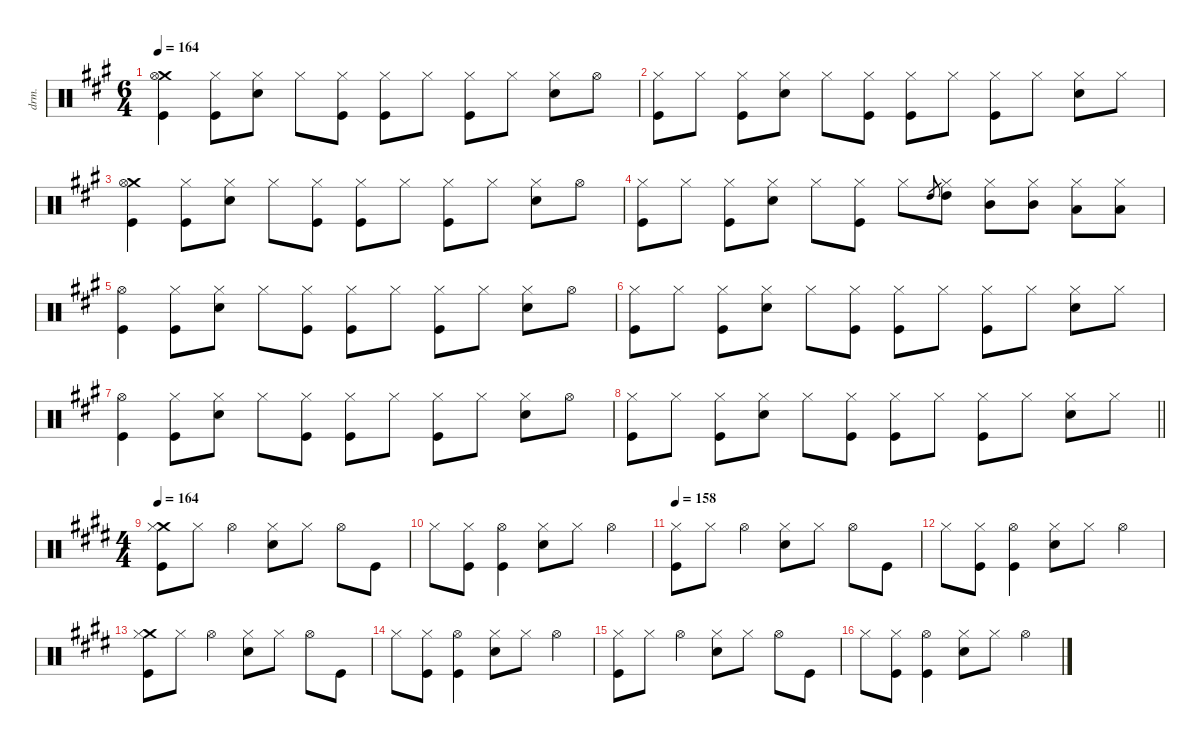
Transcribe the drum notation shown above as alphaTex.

\defaultSystemsLayout 4
\hideDynamics
\bracketExtendMode groupsimilarinstruments
\otherSystemsTrackNameOrientation horizontal
\track ("Drums" "drm.") {defaultSystemsLayout 4 instrument percussion}
\staff {score}
\articulation defaults
\ts (6 4)
\tempo 164
\clef neutral
\ks f#minor
("Crash medium (hit)"{acc forcenatural} "Hi-Hat (open)"{acc forcenatural} "Kick (hit)"{acc forcenatural}).4{dy f beam Down} ("Hi-Hat (closed)"{acc forcenatural} "Kick (hit)"{acc forcenatural}).8{beam Down} ("Hi-Hat (closed)"{acc forcenatural} "Snare (hit) 2"{acc forcenatural}).8{beam Down} "Hi-Hat (closed)"{acc forcenatural}.8{beam Down} ("Hi-Hat (closed)"{acc forcenatural} "Kick (hit)"{acc forcenatural}).8{beam Down} ("Hi-Hat (closed)"{acc forcenatural} "Kick (hit)"{acc forcenatural}).8{beam Down} "Hi-Hat (closed)"{acc forcenatural}.8{beam Down} ("Hi-Hat (closed)"{acc forcenatural} "Kick (hit)"{acc forcenatural}).8{beam Down} "Hi-Hat (closed)"{acc forcenatural}.8{beam Down} ("Hi-Hat (closed)"{acc forcenatural} "Snare (hit) 2"{acc forcenatural}).8{beam Down} "Hi-Hat (open)"{acc forcenatural}.8{beam Down} |
("Hi-Hat (closed)"{acc forcenatural} "Kick (hit)"{acc forcenatural}).8{beam Down} "Hi-Hat (closed)"{acc forcenatural}.8{beam Down} ("Hi-Hat (closed)"{acc forcenatural} "Kick (hit)"{acc forcenatural}).8{beam Down} ("Hi-Hat (closed)"{acc forcenatural} "Snare (hit) 2"{acc forcenatural}).8{beam Down} "Hi-Hat (closed)"{acc forcenatural}.8{beam Down} ("Hi-Hat (closed)"{acc forcenatural} "Kick (hit)"{acc forcenatural}).8{beam Down} ("Hi-Hat (closed)"{acc forcenatural} "Kick (hit)"{acc forcenatural}).8{beam Down} "Hi-Hat (closed)"{acc forcenatural}.8{beam Down} ("Hi-Hat (closed)"{acc forcenatural} "Kick (hit)"{acc forcenatural}).8{beam Down} "Hi-Hat (closed)"{acc forcenatural}.8{beam Down} ("Hi-Hat (closed)"{acc forcenatural} "Snare (hit) 2"{acc forcenatural}).8{beam Down} "Hi-Hat (closed)"{acc forcenatural}.8{beam Down} |
("Crash medium (hit)"{acc forcenatural} "Hi-Hat (open)"{acc forcenatural} "Kick (hit)"{acc forcenatural}).4{beam Down} ("Hi-Hat (closed)"{acc forcenatural} "Kick (hit)"{acc forcenatural}).8{beam Down} ("Hi-Hat (closed)"{acc forcenatural} "Snare (hit) 2"{acc forcenatural}).8{beam Down} "Hi-Hat (closed)"{acc forcenatural}.8{beam Down} ("Hi-Hat (closed)"{acc forcenatural} "Kick (hit)"{acc forcenatural}).8{beam Down} ("Hi-Hat (closed)"{acc forcenatural} "Kick (hit)"{acc forcenatural}).8{beam Down} "Hi-Hat (closed)"{acc forcenatural}.8{beam Down} ("Hi-Hat (closed)"{acc forcenatural} "Kick (hit)"{acc forcenatural}).8{beam Down} "Hi-Hat (closed)"{acc forcenatural}.8{beam Down} ("Hi-Hat (closed)"{acc forcenatural} "Snare (hit) 2"{acc forcenatural}).8{beam Down} "Hi-Hat (open)"{acc forcenatural}.8{beam Down} |
("Hi-Hat (closed)"{acc forcenatural} "Kick (hit)"{acc forcenatural}).8{beam Down} "Hi-Hat (closed)"{acc forcenatural}.8{beam Down} ("Hi-Hat (closed)"{acc forcenatural} "Kick (hit)"{acc forcenatural}).8{beam Down} ("Hi-Hat (closed)"{acc forcenatural} "Snare (hit) 2"{acc forcenatural}).8{beam Down} "Hi-Hat (closed)"{acc forcenatural}.8{beam Down} ("Hi-Hat (closed)"{acc forcenatural} "Kick (hit)"{acc forcenatural}).8{beam Down} "Hi-Hat (closed)"{acc forcenatural}.8{beam Down} "High Tom (hit)"{acc forcenatural}.8{gr dy mf beam Up} ("Hi-Hat (closed)"{acc forcenatural} "High Tom (hit)"{acc forcenatural}).8{dy f beam Down} ("Hi-Hat (closed)"{acc forcenatural} "Mid Tom (hit)"{acc forcenatural}).8{beam Down} ("Hi-Hat (closed)"{acc forcenatural} "Mid Tom (hit)"{acc forcenatural}).8{beam Down} ("Hi-Hat (closed)"{acc forcenatural} "Low Tom (hit)"{acc forcenatural}).8{beam Down} ("Hi-Hat (closed)"{acc forcenatural} "Low Tom (hit)"{acc forcenatural}).8{beam Down} |
("Hi-Hat (open)"{acc forcenatural} "Kick (hit)"{acc forcenatural}).4{beam Down} ("Hi-Hat (closed)"{acc forcenatural} "Kick (hit)"{acc forcenatural}).8{beam Down} ("Hi-Hat (closed)"{acc forcenatural} "Snare (hit) 2"{acc forcenatural}).8{beam Down} "Hi-Hat (closed)"{acc forcenatural}.8{beam Down} ("Hi-Hat (closed)"{acc forcenatural} "Kick (hit)"{acc forcenatural}).8{beam Down} ("Hi-Hat (closed)"{acc forcenatural} "Kick (hit)"{acc forcenatural}).8{beam Down} "Hi-Hat (closed)"{acc forcenatural}.8{beam Down} ("Hi-Hat (closed)"{acc forcenatural} "Kick (hit)"{acc forcenatural}).8{beam Down} "Hi-Hat (closed)"{acc forcenatural}.8{beam Down} ("Hi-Hat (closed)"{acc forcenatural} "Snare (hit) 2"{acc forcenatural}).8{beam Down} "Hi-Hat (open)"{acc forcenatural}.8{beam Down} |
("Hi-Hat (closed)"{acc forcenatural} "Kick (hit)"{acc forcenatural}).8{beam Down} "Hi-Hat (closed)"{acc forcenatural}.8{beam Down} ("Hi-Hat (closed)"{acc forcenatural} "Kick (hit)"{acc forcenatural}).8{beam Down} ("Hi-Hat (closed)"{acc forcenatural} "Snare (hit) 2"{acc forcenatural}).8{beam Down} "Hi-Hat (closed)"{acc forcenatural}.8{beam Down} ("Hi-Hat (closed)"{acc forcenatural} "Kick (hit)"{acc forcenatural}).8{beam Down} ("Hi-Hat (closed)"{acc forcenatural} "Kick (hit)"{acc forcenatural}).8{beam Down} "Hi-Hat (closed)"{acc forcenatural}.8{beam Down} ("Hi-Hat (closed)"{acc forcenatural} "Kick (hit)"{acc forcenatural}).8{beam Down} "Hi-Hat (closed)"{acc forcenatural}.8{beam Down} ("Hi-Hat (closed)"{acc forcenatural} "Snare (hit) 2"{acc forcenatural}).8{beam Down} "Hi-Hat (closed)"{acc forcenatural}.8{beam Down} |
("Hi-Hat (open)"{acc forcenatural} "Kick (hit)"{acc forcenatural}).4{beam Down} ("Hi-Hat (closed)"{acc forcenatural} "Kick (hit)"{acc forcenatural}).8{beam Down} ("Hi-Hat (closed)"{acc forcenatural} "Snare (hit) 2"{acc forcenatural}).8{beam Down} "Hi-Hat (closed)"{acc forcenatural}.8{beam Down} ("Hi-Hat (closed)"{acc forcenatural} "Kick (hit)"{acc forcenatural}).8{beam Down} ("Hi-Hat (closed)"{acc forcenatural} "Kick (hit)"{acc forcenatural}).8{beam Down} "Hi-Hat (closed)"{acc forcenatural}.8{beam Down} ("Hi-Hat (closed)"{acc forcenatural} "Kick (hit)"{acc forcenatural}).8{beam Down} "Hi-Hat (closed)"{acc forcenatural}.8{beam Down} ("Hi-Hat (closed)"{acc forcenatural} "Snare (hit) 2"{acc forcenatural}).8{beam Down} "Hi-Hat (open)"{acc forcenatural}.8{beam Down} |
\barLineRight lightlight
("Hi-Hat (closed)"{acc forcenatural} "Kick (hit)"{acc forcenatural}).8{beam Down} "Hi-Hat (closed)"{acc forcenatural}.8{beam Down} ("Hi-Hat (closed)"{acc forcenatural} "Kick (hit)"{acc forcenatural}).8{beam Down} ("Hi-Hat (closed)"{acc forcenatural} "Snare (hit) 2"{acc forcenatural}).8{beam Down} "Hi-Hat (closed)"{acc forcenatural}.8{beam Down} ("Hi-Hat (closed)"{acc forcenatural} "Kick (hit)"{acc forcenatural}).8{beam Down} ("Hi-Hat (closed)"{acc forcenatural} "Kick (hit)"{acc forcenatural}).8{beam Down} "Hi-Hat (closed)"{acc forcenatural}.8{beam Down} ("Hi-Hat (closed)"{acc forcenatural} "Kick (hit)"{acc forcenatural}).8{beam Down} "Hi-Hat (closed)"{acc forcenatural}.8{beam Down} ("Hi-Hat (closed)"{acc forcenatural} "Snare (hit) 2"{acc forcenatural}).8{beam Down} "Hi-Hat (closed)"{acc forcenatural}.8{beam Down} |
\ts (4 4)
\beaming (8 2 2 2 2)
\tempo 164
\ks c#minor
("Crash medium (hit)"{acc forcenatural} "Hi-Hat (closed)"{acc forcenatural} "Kick (hit)"{acc forcenatural}).8{beam Down} "Hi-Hat (closed)"{acc forcenatural}.8{dy mf beam Down} "Hi-Hat (open)"{acc forcenatural}.4{dy f beam Down} ("Hi-Hat (closed)"{acc forcenatural} "Snare (hit) 2"{acc forcenatural}).8{beam Down} "Hi-Hat (closed)"{acc forcenatural}.8{dy mf beam Down} "Hi-Hat (open)"{acc forcenatural}.8{dy f beam Down} "Kick (hit)"{acc forcenatural}.8{beam Down} |
"Hi-Hat (closed)"{acc forcenatural}.8{beam Down} ("Hi-Hat (closed)"{acc forcenatural} "Kick (hit)"{acc forcenatural}).8{dy mf beam Down} ("Hi-Hat (open)"{acc forcenatural} "Kick (hit)"{acc forcenatural}).4{dy f beam Down} ("Hi-Hat (closed)"{acc forcenatural} "Snare (hit) 2"{acc forcenatural}).8{beam Down} "Hi-Hat (closed)"{acc forcenatural}.8{dy mf beam Down} "Hi-Hat (open)"{acc forcenatural}.4{dy f beam Down} |
\tempo 158
("Hi-Hat (closed)"{acc forcenatural} "Kick (hit)"{acc forcenatural}).8{beam Down} "Hi-Hat (closed)"{acc forcenatural}.8{dy mf beam Down} "Hi-Hat (open)"{acc forcenatural}.4{dy f beam Down} ("Hi-Hat (closed)"{acc forcenatural} "Snare (hit) 2"{acc forcenatural}).8{beam Down} "Hi-Hat (closed)"{acc forcenatural}.8{dy mf beam Down} "Hi-Hat (open)"{acc forcenatural}.8{dy f beam Down} "Kick (hit)"{acc forcenatural}.8{beam Down} |
"Hi-Hat (closed)"{acc forcenatural}.8{beam Down} ("Hi-Hat (closed)"{acc forcenatural} "Kick (hit)"{acc forcenatural}).8{dy mf beam Down} ("Hi-Hat (open)"{acc forcenatural} "Kick (hit)"{acc forcenatural}).4{dy f beam Down} ("Hi-Hat (closed)"{acc forcenatural} "Snare (hit) 2"{acc forcenatural}).8{beam Down} "Hi-Hat (closed)"{acc forcenatural}.8{dy mf beam Down} "Hi-Hat (open)"{acc forcenatural}.4{dy f beam Down} |
("Crash medium (hit)"{acc forcenatural} "Hi-Hat (closed)"{acc forcenatural} "Kick (hit)"{acc forcenatural}).8{beam Down} "Hi-Hat (closed)"{acc forcenatural}.8{dy mf beam Down} "Hi-Hat (open)"{acc forcenatural}.4{dy f beam Down} ("Hi-Hat (closed)"{acc forcenatural} "Snare (hit) 2"{acc forcenatural}).8{beam Down} "Hi-Hat (closed)"{acc forcenatural}.8{dy mf beam Down} "Hi-Hat (open)"{acc forcenatural}.8{dy f beam Down} "Kick (hit)"{acc forcenatural}.8{beam Down} |
"Hi-Hat (closed)"{acc forcenatural}.8{beam Down} ("Hi-Hat (closed)"{acc forcenatural} "Kick (hit)"{acc forcenatural}).8{dy mf beam Down} ("Hi-Hat (open)"{acc forcenatural} "Kick (hit)"{acc forcenatural}).4{dy f beam Down} ("Hi-Hat (closed)"{acc forcenatural} "Snare (hit) 2"{acc forcenatural}).8{beam Down} "Hi-Hat (closed)"{acc forcenatural}.8{dy mf beam Down} "Hi-Hat (open)"{acc forcenatural}.4{dy f beam Down} |
("Hi-Hat (closed)"{acc forcenatural} "Kick (hit)"{acc forcenatural}).8{beam Down} "Hi-Hat (closed)"{acc forcenatural}.8{dy mf beam Down} "Hi-Hat (open)"{acc forcenatural}.4{dy f beam Down} ("Hi-Hat (closed)"{acc forcenatural} "Snare (hit) 2"{acc forcenatural}).8{beam Down} "Hi-Hat (closed)"{acc forcenatural}.8{dy mf beam Down} "Hi-Hat (open)"{acc forcenatural}.8{dy f beam Down} "Kick (hit)"{acc forcenatural}.8{beam Down} |
"Hi-Hat (closed)"{acc forcenatural}.8{beam Down} ("Hi-Hat (closed)"{acc forcenatural} "Kick (hit)"{acc forcenatural}).8{dy mf beam Down} ("Hi-Hat (open)"{acc forcenatural} "Kick (hit)"{acc forcenatural}).4{dy f beam Down} ("Hi-Hat (closed)"{acc forcenatural} "Snare (hit) 2"{acc forcenatural}).8{beam Down} "Hi-Hat (closed)"{acc forcenatural}.8{dy mf beam Down} "Hi-Hat (open)"{acc forcenatural}.4{dy f beam Down}
